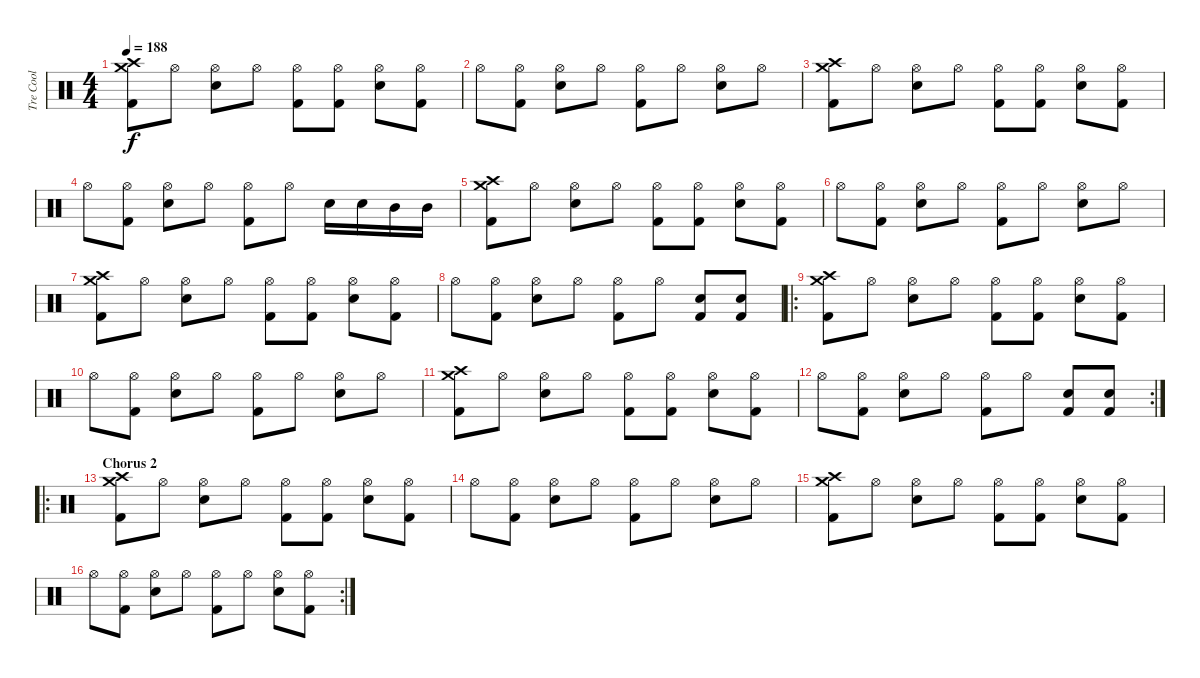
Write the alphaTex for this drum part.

\track ("Tre Cool" "Tre Cool") {instrument percussion}
\staff {score}
\articulation defaults
\ts (4 4)
\tempo 188
\clef neutral
\ks c
("Crash high (hit)" "Crash medium (hit)" "Kick (hit) 2").8{dy f} "Hi-Hat (open)".8 ("Hi-Hat (open)" "Electric Snare (hit)").8 "Hi-Hat (open)".8 ("Hi-Hat (open)" "Kick (hit) 2").8 ("Hi-Hat (open)" "Kick (hit) 2").8 ("Hi-Hat (open)" "Electric Snare (hit)").8 ("Hi-Hat (open)" "Kick (hit) 2").8 |
"Hi-Hat (open)".8 ("Hi-Hat (open)" "Kick (hit) 2").8 ("Hi-Hat (open)" "Electric Snare (hit)").8 "Hi-Hat (open)".8 ("Hi-Hat (open)" "Kick (hit) 2").8 "Hi-Hat (open)".8 ("Hi-Hat (open)" "Electric Snare (hit)").8 "Hi-Hat (open)".8 |
("Crash high (hit)" "Crash medium (hit)" "Kick (hit) 2").8 "Hi-Hat (open)".8 ("Hi-Hat (open)" "Electric Snare (hit)").8 "Hi-Hat (open)".8 ("Hi-Hat (open)" "Kick (hit) 2").8 ("Hi-Hat (open)" "Kick (hit) 2").8 ("Hi-Hat (open)" "Electric Snare (hit)").8 ("Hi-Hat (open)" "Kick (hit) 2").8 |
"Hi-Hat (open)".8 ("Hi-Hat (open)" "Kick (hit) 2").8 ("Hi-Hat (open)" "Electric Snare (hit)").8 "Hi-Hat (open)".8 ("Hi-Hat (open)" "Kick (hit) 2").8 "Hi-Hat (open)".8 "Electric Snare (hit)".16 "Electric Snare (hit)".16 "Mid Tom (hit)".16 "Mid Tom (hit)".16 |
("Crash high (hit)" "Crash medium (hit)" "Kick (hit) 2").8 "Hi-Hat (open)".8 ("Hi-Hat (open)" "Electric Snare (hit)").8 "Hi-Hat (open)".8 ("Hi-Hat (open)" "Kick (hit) 2").8 ("Hi-Hat (open)" "Kick (hit) 2").8 ("Hi-Hat (open)" "Electric Snare (hit)").8 ("Hi-Hat (open)" "Kick (hit) 2").8 |
"Hi-Hat (open)".8 ("Hi-Hat (open)" "Kick (hit) 2").8 ("Hi-Hat (open)" "Electric Snare (hit)").8 "Hi-Hat (open)".8 ("Hi-Hat (open)" "Kick (hit) 2").8 "Hi-Hat (open)".8 ("Hi-Hat (open)" "Electric Snare (hit)").8 "Hi-Hat (open)".8 |
("Crash high (hit)" "Crash medium (hit)" "Kick (hit) 2").8 "Hi-Hat (open)".8 ("Hi-Hat (open)" "Electric Snare (hit)").8 "Hi-Hat (open)".8 ("Hi-Hat (open)" "Kick (hit) 2").8 ("Hi-Hat (open)" "Kick (hit) 2").8 ("Hi-Hat (open)" "Electric Snare (hit)").8 ("Hi-Hat (open)" "Kick (hit) 2").8 |
"Hi-Hat (open)".8 ("Hi-Hat (open)" "Kick (hit) 2").8 ("Hi-Hat (open)" "Electric Snare (hit)").8 "Hi-Hat (open)".8 ("Hi-Hat (open)" "Kick (hit) 2").8 "Hi-Hat (open)".8 ("Electric Snare (hit)" "Kick (hit) 2").8 ("Electric Snare (hit)" "Kick (hit) 2").8 |
\ro
("Crash high (hit)" "Crash medium (hit)" "Kick (hit) 2").8 "Hi-Hat (open)".8 ("Hi-Hat (open)" "Electric Snare (hit)").8 "Hi-Hat (open)".8 ("Hi-Hat (open)" "Kick (hit) 2").8 ("Hi-Hat (open)" "Kick (hit) 2").8 ("Hi-Hat (open)" "Electric Snare (hit)").8 ("Hi-Hat (open)" "Kick (hit) 2").8 |
"Hi-Hat (open)".8 ("Hi-Hat (open)" "Kick (hit) 2").8 ("Hi-Hat (open)" "Electric Snare (hit)").8 "Hi-Hat (open)".8 ("Hi-Hat (open)" "Kick (hit) 2").8 "Hi-Hat (open)".8 ("Hi-Hat (open)" "Electric Snare (hit)").8 "Hi-Hat (open)".8 |
("Crash high (hit)" "Crash medium (hit)" "Kick (hit) 2").8 "Hi-Hat (open)".8 ("Hi-Hat (open)" "Electric Snare (hit)").8 "Hi-Hat (open)".8 ("Hi-Hat (open)" "Kick (hit) 2").8 ("Hi-Hat (open)" "Kick (hit) 2").8 ("Hi-Hat (open)" "Electric Snare (hit)").8 ("Hi-Hat (open)" "Kick (hit) 2").8 |
\rc 2 "Hi-Hat (open)".8
("Hi-Hat (open)" "Kick (hit) 2").8 ("Hi-Hat (open)" "Electric Snare (hit)").8 "Hi-Hat (open)".8 ("Hi-Hat (open)" "Kick (hit) 2").8 "Hi-Hat (open)".8 ("Electric Snare (hit)" "Kick (hit) 2").8 ("Electric Snare (hit)" "Kick (hit) 2").8 |
\ro
\section ("" "Chorus 2")
("Crash high (hit)" "Crash medium (hit)" "Kick (hit) 2").8 "Hi-Hat (open)".8 ("Hi-Hat (open)" "Electric Snare (hit)").8 "Hi-Hat (open)".8 ("Hi-Hat (open)" "Kick (hit) 2").8 ("Hi-Hat (open)" "Kick (hit) 2").8 ("Hi-Hat (open)" "Electric Snare (hit)").8 ("Hi-Hat (open)" "Kick (hit) 2").8 |
"Hi-Hat (open)".8 ("Hi-Hat (open)" "Kick (hit) 2").8 ("Hi-Hat (open)" "Electric Snare (hit)").8 "Hi-Hat (open)".8 ("Hi-Hat (open)" "Kick (hit) 2").8 "Hi-Hat (open)".8 ("Hi-Hat (open)" "Electric Snare (hit)").8 "Hi-Hat (open)".8 |
("Crash high (hit)" "Crash medium (hit)" "Kick (hit) 2").8 "Hi-Hat (open)".8 ("Hi-Hat (open)" "Electric Snare (hit)").8 "Hi-Hat (open)".8 ("Hi-Hat (open)" "Kick (hit) 2").8 ("Hi-Hat (open)" "Kick (hit) 2").8 ("Hi-Hat (open)" "Electric Snare (hit)").8 ("Hi-Hat (open)" "Kick (hit) 2").8 |
\rc 2 "Hi-Hat (open)".8
("Hi-Hat (open)" "Kick (hit) 2").8 ("Hi-Hat (open)" "Electric Snare (hit)").8 "Hi-Hat (open)".8 ("Hi-Hat (open)" "Kick (hit) 2").8 "Hi-Hat (open)".8 ("Hi-Hat (open)" "Electric Snare (hit)").8 ("Hi-Hat (open)" "Kick (hit) 2").8
